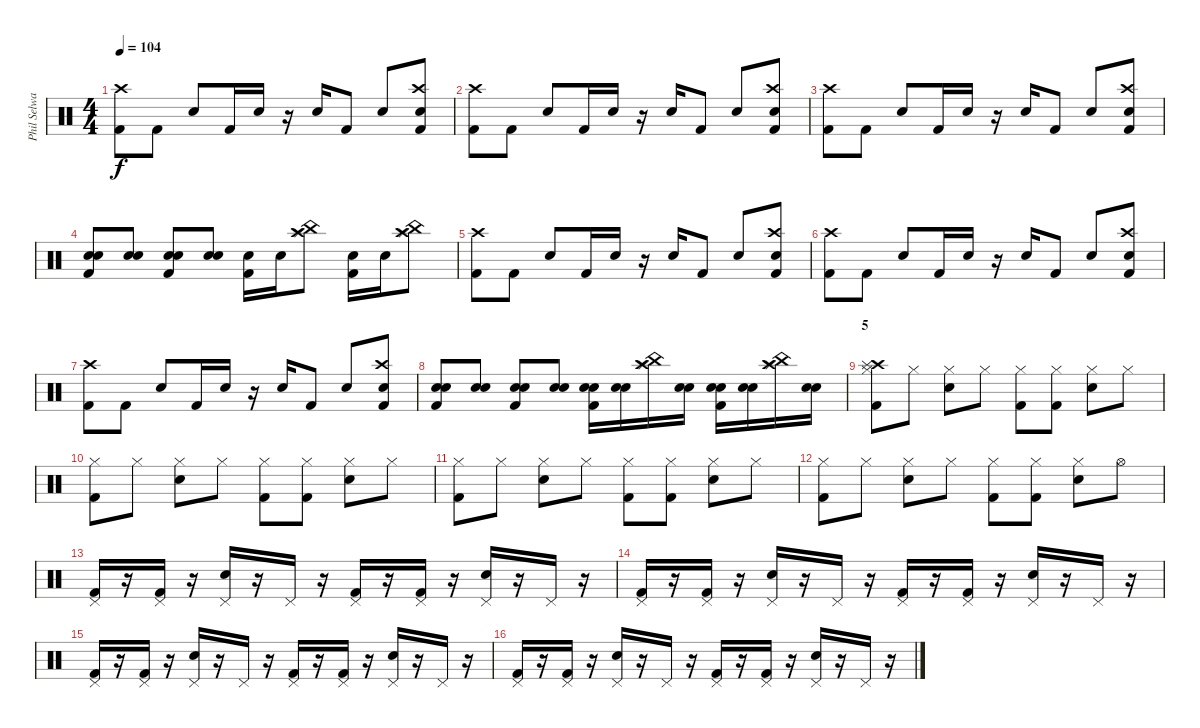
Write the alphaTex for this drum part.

\track ("Phil Selway" "Phil Selwa") {instrument percussion}
\staff {score}
\articulation defaults
\ts (4 4)
\tempo 104
\clef neutral
\ks c
("Kick (hit) 2" "Crash high (hit)").8{dy f} "Kick (hit) 2".8 "Electric Snare (hit)".8 "Kick (hit) 2".16 "Electric Snare (hit)".16 r.16 "Electric Snare (hit)".16 "Kick (hit) 2".8 "Electric Snare (hit)".8 ("Kick (hit) 2" "Crash high (hit)" "Electric Snare (hit)").8 |
("Kick (hit) 2" "Crash high (hit)").8 "Kick (hit) 2".8 "Electric Snare (hit)".8 "Kick (hit) 2".16 "Electric Snare (hit)".16 r.16 "Electric Snare (hit)".16 "Kick (hit) 2".8 "Electric Snare (hit)".8 ("Kick (hit) 2" "Crash high (hit)" "Electric Snare (hit)").8 |
("Kick (hit) 2" "Crash high (hit)").8 "Kick (hit) 2".8 "Electric Snare (hit)".8 "Kick (hit) 2".16 "Electric Snare (hit)".16 r.16 "Electric Snare (hit)".16 "Kick (hit) 2".8 "Electric Snare (hit)".8 ("Kick (hit) 2" "Crash high (hit)" "Electric Snare (hit)").8 |
("Electric Snare (hit)" "Snare (hit) 2" "Kick (hit) 2").8 ("Electric Snare (hit)" "Snare (hit) 2").8 ("Electric Snare (hit)" "Snare (hit) 2" "Kick (hit) 2").8 ("Electric Snare (hit)" "Snare (hit) 2").8 ("Electric Snare (hit)" "Kick (hit) 2").16 "Electric Snare (hit)".16 ("Splash (hit)" "China (hit)" "Crash high (hit)").8 ("Electric Snare (hit)" "Kick (hit) 2").16 "Electric Snare (hit)".16 ("Splash (hit)" "China (hit)" "Crash high (hit)").8 |
("Kick (hit) 2" "Crash high (hit)").8 "Kick (hit) 2".8 "Electric Snare (hit)".8 "Kick (hit) 2".16 "Electric Snare (hit)".16 r.16 "Electric Snare (hit)".16 "Kick (hit) 2".8 "Electric Snare (hit)".8 ("Kick (hit) 2" "Crash high (hit)" "Electric Snare (hit)").8 |
("Kick (hit) 2" "Crash high (hit)").8 "Kick (hit) 2".8 "Electric Snare (hit)".8 "Kick (hit) 2".16 "Electric Snare (hit)".16 r.16 "Electric Snare (hit)".16 "Kick (hit) 2".8 "Electric Snare (hit)".8 ("Kick (hit) 2" "Crash high (hit)" "Electric Snare (hit)").8 |
("Kick (hit) 2" "Crash high (hit)").8 "Kick (hit) 2".8 "Electric Snare (hit)".8 "Kick (hit) 2".16 "Electric Snare (hit)".16 r.16 "Electric Snare (hit)".16 "Kick (hit) 2".8 "Electric Snare (hit)".8 ("Kick (hit) 2" "Crash high (hit)" "Electric Snare (hit)").8 |
("Electric Snare (hit)" "Snare (hit) 2" "Kick (hit) 2").8 ("Electric Snare (hit)" "Snare (hit) 2").8 ("Electric Snare (hit)" "Snare (hit) 2" "Kick (hit) 2").8 ("Electric Snare (hit)" "Snare (hit) 2").8 ("Electric Snare (hit)" "Kick (hit) 2" "Snare (hit) 2").16 ("Electric Snare (hit)" "Snare (hit) 2").16 ("Splash (hit)" "China (hit)" "Crash high (hit)").16 ("Electric Snare (hit)" "Snare (hit) 2").16 ("Electric Snare (hit)" "Kick (hit) 2" "Snare (hit) 2").16 ("Electric Snare (hit)" "Snare (hit) 2").16 ("Splash (hit)" "China (hit)" "Crash high (hit)").16 ("Electric Snare (hit)" "Snare (hit) 2").16 |
\section ("" "5")
("Kick (hit) 2" "Crash high (hit)" "Splash (hit)" "Hi-Hat (closed)").8 "Hi-Hat (closed)".8 ("Electric Snare (hit)" "Hi-Hat (closed)").8 "Hi-Hat (closed)".8 ("Kick (hit) 2" "Hi-Hat (closed)").8 ("Kick (hit) 2" "Hi-Hat (closed)").8 ("Electric Snare (hit)" "Hi-Hat (closed)").8 "Hi-Hat (closed)".8 |
("Kick (hit) 2" "Hi-Hat (closed)").8 "Hi-Hat (closed)".8 ("Electric Snare (hit)" "Hi-Hat (closed)").8 "Hi-Hat (closed)".8 ("Kick (hit) 2" "Hi-Hat (closed)").8 ("Kick (hit) 2" "Hi-Hat (closed)").8 ("Electric Snare (hit)" "Hi-Hat (closed)").8 "Hi-Hat (closed)".8 |
("Kick (hit) 2" "Hi-Hat (closed)").8 "Hi-Hat (closed)".8 ("Electric Snare (hit)" "Hi-Hat (closed)").8 "Hi-Hat (closed)".8 ("Kick (hit) 2" "Hi-Hat (closed)").8 ("Kick (hit) 2" "Hi-Hat (closed)").8 ("Electric Snare (hit)" "Hi-Hat (closed)").8 "Hi-Hat (closed)".8 |
("Kick (hit) 2" "Hi-Hat (closed)").8 "Hi-Hat (closed)".8 ("Electric Snare (hit)" "Hi-Hat (closed)").8 "Hi-Hat (closed)".8 ("Kick (hit) 2" "Hi-Hat (closed)").8 ("Kick (hit) 2" "Hi-Hat (closed)").8 ("Electric Snare (hit)" "Hi-Hat (closed)").8 "Hi-Hat (open)".8 |
("Pedal Hi-Hat (hit)" "Kick (hit) 2").16 r.16 ("Pedal Hi-Hat (hit)" "Kick (hit) 2").16 r.16 ("Pedal Hi-Hat (hit)" "Electric Snare (hit)").16 r.16 "Pedal Hi-Hat (hit)".16 r.16 ("Pedal Hi-Hat (hit)" "Kick (hit) 2").16 r.16 ("Pedal Hi-Hat (hit)" "Kick (hit) 2").16 r.16 ("Pedal Hi-Hat (hit)" "Electric Snare (hit)").16 r.16 "Pedal Hi-Hat (hit)".16 r.16 |
("Pedal Hi-Hat (hit)" "Kick (hit) 2").16 r.16 ("Pedal Hi-Hat (hit)" "Kick (hit) 2").16 r.16 ("Pedal Hi-Hat (hit)" "Electric Snare (hit)").16 r.16 "Pedal Hi-Hat (hit)".16 r.16 ("Pedal Hi-Hat (hit)" "Kick (hit) 2").16 r.16 ("Pedal Hi-Hat (hit)" "Kick (hit) 2").16 r.16 ("Pedal Hi-Hat (hit)" "Electric Snare (hit)").16 r.16 "Pedal Hi-Hat (hit)".16 r.16 |
("Pedal Hi-Hat (hit)" "Kick (hit) 2").16 r.16 ("Pedal Hi-Hat (hit)" "Kick (hit) 2").16 r.16 ("Pedal Hi-Hat (hit)" "Electric Snare (hit)").16 r.16 "Pedal Hi-Hat (hit)".16 r.16 ("Pedal Hi-Hat (hit)" "Kick (hit) 2").16 r.16 ("Pedal Hi-Hat (hit)" "Kick (hit) 2").16 r.16 ("Pedal Hi-Hat (hit)" "Electric Snare (hit)").16 r.16 "Pedal Hi-Hat (hit)".16 r.16 |
("Pedal Hi-Hat (hit)" "Kick (hit) 2").16 r.16 ("Pedal Hi-Hat (hit)" "Kick (hit) 2").16 r.16 ("Pedal Hi-Hat (hit)" "Electric Snare (hit)").16 r.16 "Pedal Hi-Hat (hit)".16 r.16 ("Pedal Hi-Hat (hit)" "Kick (hit) 2").16 r.16 ("Pedal Hi-Hat (hit)" "Kick (hit) 2").16 r.16 ("Pedal Hi-Hat (hit)" "Electric Snare (hit)").16 r.16 "Pedal Hi-Hat (hit)".16 r.16
